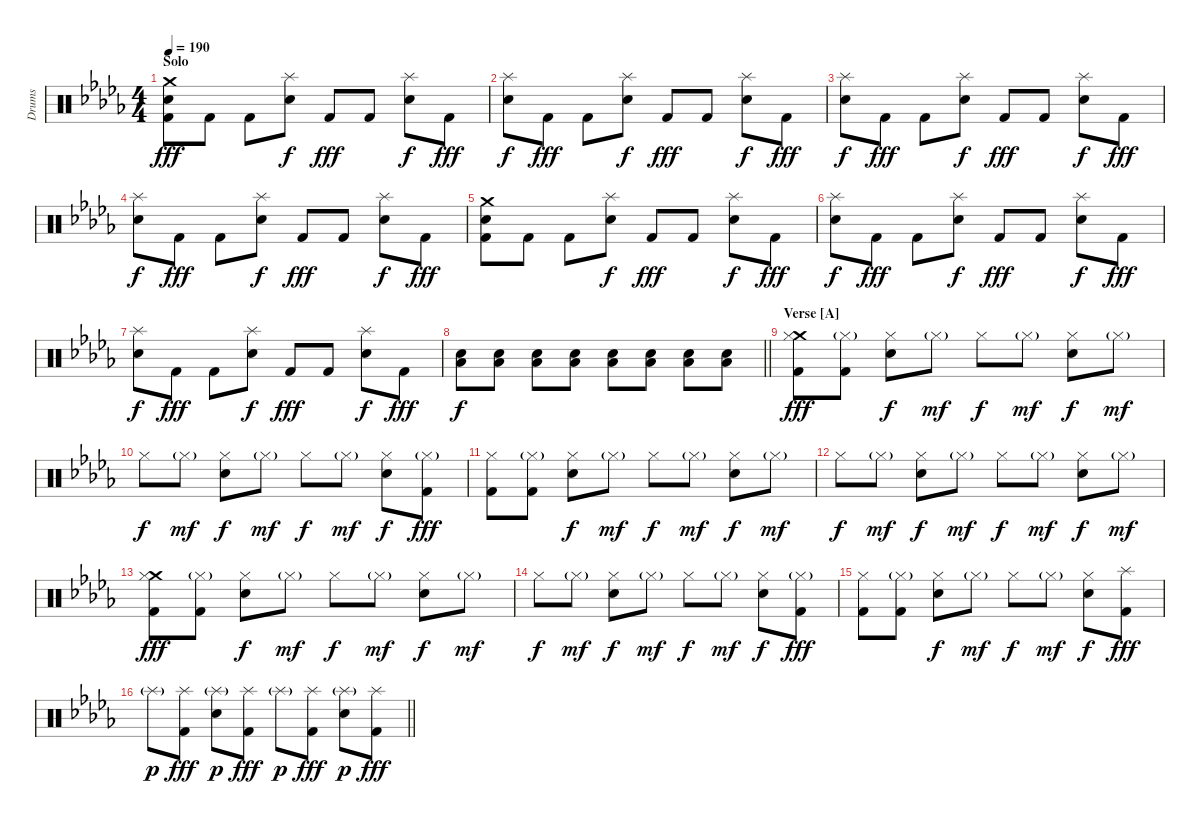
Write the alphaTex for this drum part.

\track ("Drums" "Drums") {instrument percussion}
\staff {score}
\articulation defaults
\ts (4 4)
\section ("" "Solo")
\tempo 190
\clef neutral
\ks db
("Crash medium (hit)" "Electric Snare (hit)" "Kick (hit) 2").8{dy fff} "Kick (hit) 2".8 "Kick (hit) 2".8 ("Splash (hit)" "Electric Snare (hit)").8{dy f} "Kick (hit) 2".8{dy fff} "Kick (hit) 2".8 ("Splash (hit)" "Electric Snare (hit)").8{dy f} "Kick (hit) 2".8{dy fff} |
("Splash (hit)" "Electric Snare (hit)").8{dy f} "Kick (hit) 2".8{dy fff} "Kick (hit) 2".8 ("Splash (hit)" "Electric Snare (hit)").8{dy f} "Kick (hit) 2".8{dy fff} "Kick (hit) 2".8 ("Splash (hit)" "Electric Snare (hit)").8{dy f} "Kick (hit) 2".8{dy fff} |
("Splash (hit)" "Electric Snare (hit)").8{dy f} "Kick (hit) 2".8{dy fff} "Kick (hit) 2".8 ("Splash (hit)" "Electric Snare (hit)").8{dy f} "Kick (hit) 2".8{dy fff} "Kick (hit) 2".8 ("Splash (hit)" "Electric Snare (hit)").8{dy f} "Kick (hit) 2".8{dy fff} |
("Splash (hit)" "Electric Snare (hit)").8{dy f} "Kick (hit) 2".8{dy fff} "Kick (hit) 2".8 ("Splash (hit)" "Electric Snare (hit)").8{dy f} "Kick (hit) 2".8{dy fff} "Kick (hit) 2".8 ("Splash (hit)" "Electric Snare (hit)").8{dy f} "Kick (hit) 2".8{dy fff} |
("Crash medium (hit)" "Electric Snare (hit)" "Kick (hit) 2").8 "Kick (hit) 2".8 "Kick (hit) 2".8 ("Splash (hit)" "Electric Snare (hit)").8{dy f} "Kick (hit) 2".8{dy fff} "Kick (hit) 2".8 ("Splash (hit)" "Electric Snare (hit)").8{dy f} "Kick (hit) 2".8{dy fff} |
("Splash (hit)" "Electric Snare (hit)").8{dy f} "Kick (hit) 2".8{dy fff} "Kick (hit) 2".8 ("Splash (hit)" "Electric Snare (hit)").8{dy f} "Kick (hit) 2".8{dy fff} "Kick (hit) 2".8 ("Splash (hit)" "Electric Snare (hit)").8{dy f} "Kick (hit) 2".8{dy fff} |
("Splash (hit)" "Electric Snare (hit)").8{dy f} "Kick (hit) 2".8{dy fff} "Kick (hit) 2".8 ("Splash (hit)" "Electric Snare (hit)").8{dy f} "Kick (hit) 2".8{dy fff} "Kick (hit) 2".8 ("Splash (hit)" "Electric Snare (hit)").8{dy f} "Kick (hit) 2".8{dy fff} |
\barLineRight lightlight
("Low Floor Tom (hit)" "Electric Snare (hit)").8{dy f} ("Low Floor Tom (hit)" "Electric Snare (hit)").8 ("Low Floor Tom (hit)" "Electric Snare (hit)").8 ("Low Floor Tom (hit)" "Electric Snare (hit)").8 ("Low Floor Tom (hit)" "Electric Snare (hit)").8 ("Low Floor Tom (hit)" "Electric Snare (hit)").8 ("Low Floor Tom (hit)" "Electric Snare (hit)").8 ("Low Floor Tom (hit)" "Electric Snare (hit)").8 |
\section ("" "Verse [A]")
("Crash medium (hit)" "Hi-Hat (closed)" "Kick (hit) 2").8{dy fff} ("Hi-Hat (closed)"{g} "Kick (hit) 2").8 ("Hi-Hat (closed)" "Electric Snare (hit)").8{dy f} "Hi-Hat (closed)"{g}.8{dy mf} "Hi-Hat (closed)".8{dy f} "Hi-Hat (closed)"{g}.8{dy mf} ("Hi-Hat (closed)" "Electric Snare (hit)").8{dy f} "Hi-Hat (closed)"{g}.8{dy mf} |
"Hi-Hat (closed)".8{dy f} "Hi-Hat (closed)"{g}.8{dy mf} ("Hi-Hat (closed)" "Electric Snare (hit)").8{dy f} "Hi-Hat (closed)"{g}.8{dy mf} "Hi-Hat (closed)".8{dy f} "Hi-Hat (closed)"{g}.8{dy mf} ("Hi-Hat (closed)" "Electric Snare (hit)").8{dy f} ("Hi-Hat (closed)"{g} "Kick (hit) 2").8{dy fff} |
("Hi-Hat (closed)" "Kick (hit) 2").8 ("Hi-Hat (closed)"{g} "Kick (hit) 2").8 ("Hi-Hat (closed)" "Electric Snare (hit)").8{dy f} "Hi-Hat (closed)"{g}.8{dy mf} "Hi-Hat (closed)".8{dy f} "Hi-Hat (closed)"{g}.8{dy mf} ("Hi-Hat (closed)" "Electric Snare (hit)").8{dy f} "Hi-Hat (closed)"{g}.8{dy mf} |
"Hi-Hat (closed)".8{dy f} "Hi-Hat (closed)"{g}.8{dy mf} ("Hi-Hat (closed)" "Electric Snare (hit)").8{dy f} "Hi-Hat (closed)"{g}.8{dy mf} "Hi-Hat (closed)".8{dy f} "Hi-Hat (closed)"{g}.8{dy mf} ("Hi-Hat (closed)" "Electric Snare (hit)").8{dy f} "Hi-Hat (closed)"{g}.8{dy mf} |
("Crash medium (hit)" "Hi-Hat (closed)" "Kick (hit) 2").8{dy fff} ("Hi-Hat (closed)"{g} "Kick (hit) 2").8 ("Hi-Hat (closed)" "Electric Snare (hit)").8{dy f} "Hi-Hat (closed)"{g}.8{dy mf} "Hi-Hat (closed)".8{dy f} "Hi-Hat (closed)"{g}.8{dy mf} ("Hi-Hat (closed)" "Electric Snare (hit)").8{dy f} "Hi-Hat (closed)"{g}.8{dy mf} |
"Hi-Hat (closed)".8{dy f} "Hi-Hat (closed)"{g}.8{dy mf} ("Hi-Hat (closed)" "Electric Snare (hit)").8{dy f} "Hi-Hat (closed)"{g}.8{dy mf} "Hi-Hat (closed)".8{dy f} "Hi-Hat (closed)"{g}.8{dy mf} ("Hi-Hat (closed)" "Electric Snare (hit)").8{dy f} ("Hi-Hat (closed)"{g} "Kick (hit) 2").8{dy fff} |
("Hi-Hat (closed)" "Kick (hit) 2").8 ("Hi-Hat (closed)"{g} "Kick (hit) 2").8 ("Hi-Hat (closed)" "Electric Snare (hit)").8{dy f} "Hi-Hat (closed)"{g}.8{dy mf} "Hi-Hat (closed)".8{dy f} "Hi-Hat (closed)"{g}.8{dy mf} ("Hi-Hat (closed)" "Electric Snare (hit)").8{dy f} ("Splash (hit)" "Kick (hit) 2").8{dy fff} |
\barLineRight lightlight "Splash (hit)"{g}.8{dy p}
("Splash (hit)" "Kick (hit) 2").8{dy fff} ("Splash (hit)"{g} "Electric Snare (hit)").8{dy p} ("Splash (hit)" "Kick (hit) 2").8{dy fff} "Splash (hit)"{g}.8{dy p} ("Splash (hit)" "Kick (hit) 2").8{dy fff} ("Splash (hit)"{g} "Electric Snare (hit)").8{dy p} ("Splash (hit)" "Kick (hit) 2").8{dy fff}
